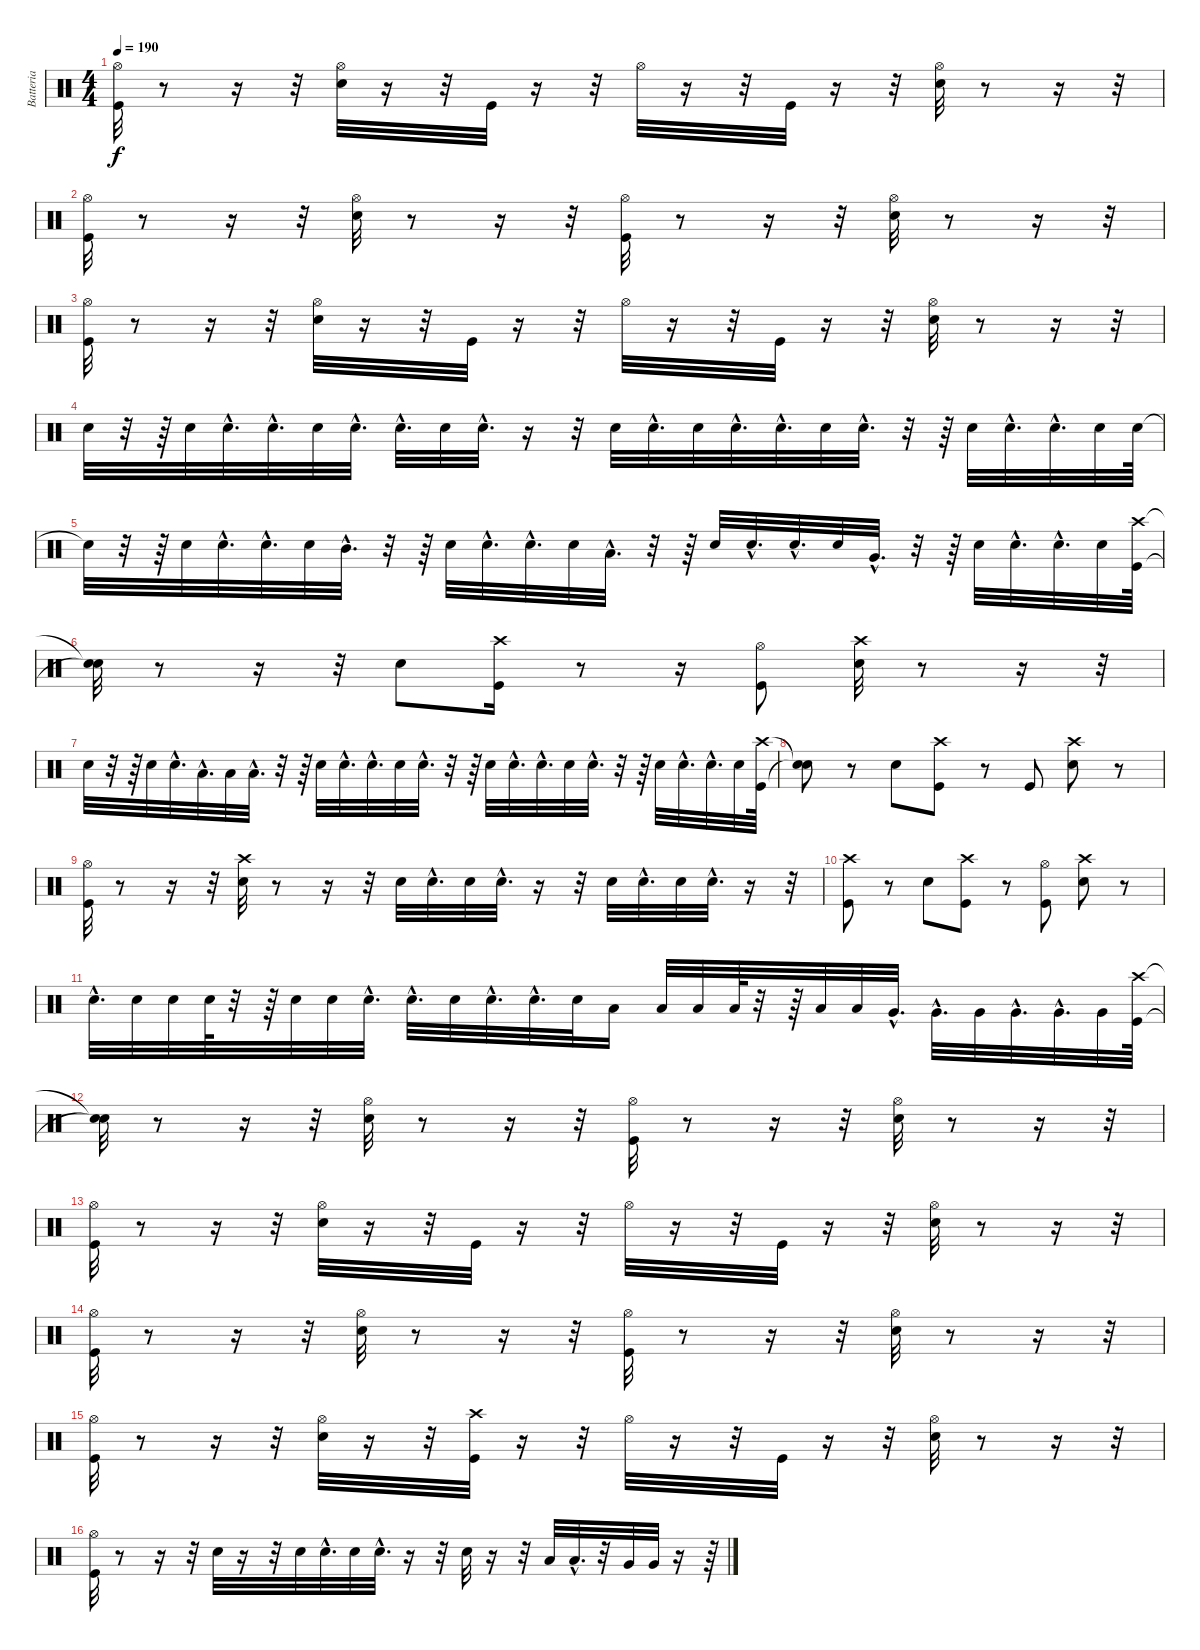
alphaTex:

\track ("Batteria" "Batteria") {instrument percussion}
\staff {score}
\articulation defaults
\ts (4 4)
\tempo 190
\clef neutral
\ks c
("Kick (hit)" "Hi-Hat (open)").32{dy f} r.8 r.16 r.32 ("Hi-Hat (open)" "Snare (hit) 2").32 r.16 r.32 "Kick (hit)".32 r.16 r.32 "Hi-Hat (open)".32 r.16 r.32 "Kick (hit)".32 r.16 r.32 ("Hi-Hat (open)" "Snare (hit) 2").32 r.8 r.16 r.32 |
("Hi-Hat (open)" "Kick (hit)").32 r.8 r.16 r.32 ("Snare (hit) 2" "Hi-Hat (open)").32 r.8 r.16 r.32 ("Hi-Hat (open)" "Kick (hit)").32 r.8 r.16 r.32 ("Hi-Hat (open)" "Snare (hit) 2").32 r.8 r.16 r.32 |
("Kick (hit)" "Hi-Hat (open)").32 r.8 r.16 r.32 ("Snare (hit) 2" "Hi-Hat (open)").32 r.16 r.32 "Kick (hit)".32 r.16 r.32 "Hi-Hat (open)".32 r.16 r.32 "Kick (hit)".32 r.16 r.32 ("Snare (hit) 2" "Hi-Hat (open)").32 r.8 r.16 r.32 |
"Snare (hit) 2".32 r.32 r.64 "Snare (hit) 2".32 "Snare (hit) 2"{hac}.32{d} "Snare (hit) 2"{hac}.32{d} "Snare (hit) 2".32 "Snare (hit) 2"{hac}.32{d} "Snare (hit) 2"{hac}.32{d} "Snare (hit) 2".32 "Snare (hit) 2"{hac}.32{d} r.16 r.32 "Snare (hit) 2".32 "Snare (hit) 2"{hac}.32{d} "Snare (hit) 2".32 "Snare (hit) 2"{hac}.32{d} "Snare (hit) 2"{hac}.32{d} "Snare (hit) 2".32 "Snare (hit) 2"{hac}.32{d} r.32 r.64 "Snare (hit) 2".32 "Snare (hit) 2"{hac}.32{d} "Snare (hit) 2"{hac}.32{d} "Snare (hit) 2".32 "Snare (hit) 2".64 |
"Snare (hit)"{t}.32 r.32 r.64 "Snare (hit) 2".32 "Snare (hit) 2"{hac}.32{d} "Snare (hit) 2"{hac}.32{d} "Snare (hit) 2".32 "Mid Tom (hit)"{hac}.32{d} r.32 r.64 "Snare (hit) 2".32 "Snare (hit) 2"{hac}.32{d} "Snare (hit) 2"{hac}.32{d} "Snare (hit) 2".32 "Low Tom (hit)"{hac}.32{d} r.32 r.64 "Snare (hit) 2".32 "Snare (hit) 2"{hac}.32{d} "Snare (hit) 2"{hac}.32{d} "Snare (hit) 2".32 "Very Low Tom (hit)"{hac}.32{d} r.32 r.64 "Snare (hit) 2".32 "Snare (hit) 2"{hac}.32{d} "Snare (hit) 2"{hac}.32{d} "Snare (hit) 2".32 ("Crash high (hit)" "Kick (hit)").64 |
("Snare (hit)"{t} "Snare (hit)"{t}).32 r.8 r.16 r.32 "Snare (hit) 2".8 ("Crash high (hit)" "Kick (hit)").16 r.8 r.16 ("Hi-Hat (open)" "Kick (hit)").8 ("Crash high (hit)" "Snare (hit) 2").32 r.8 r.16 r.32 |
"Snare (hit) 2".32 r.32 r.64 "Snare (hit) 2".32 "Snare (hit) 2"{hac}.32{d} "Low Tom (hit)"{hac}.32{d} "Low Tom (hit)".32 "Low Tom (hit)"{hac}.32{d} r.32 r.64 "Snare (hit) 2".32 "Snare (hit) 2"{hac}.32{d} "Snare (hit) 2"{hac}.32{d} "Snare (hit) 2".32 "Snare (hit) 2"{hac}.32{d} r.32 r.64 "Snare (hit) 2".32 "Snare (hit) 2"{hac}.32{d} "Snare (hit) 2"{hac}.32{d} "Snare (hit) 2".32 "Snare (hit) 2"{hac}.32{d} r.32 r.64 "Snare (hit) 2".32 "Snare (hit) 2"{hac}.32{d} "Snare (hit) 2"{hac}.32{d} "Snare (hit) 2".32 ("Kick (hit)" "Crash high (hit)").64 |
("Snare (hit)"{t} "Snare (hit)"{t}).8 r.8 "Snare (hit) 2".8 ("Crash high (hit)" "Kick (hit)").8 r.8 "Kick (hit)".8 ("Crash high (hit)" "Snare (hit) 2").8 r.8 |
("Kick (hit)" "Hi-Hat (open)").32 r.8 r.16 r.32 ("Crash high (hit)" "Snare (hit) 2").32 r.8 r.16 r.32 "Snare (hit) 2".32 "Snare (hit) 2"{hac}.32{d} "Snare (hit) 2".32 "Snare (hit) 2"{hac}.32{d} r.16 r.32 "Snare (hit) 2".32 "Snare (hit) 2"{hac}.32{d} "Snare (hit) 2".32 "Snare (hit) 2"{hac}.32{d} r.16 r.32 |
("Kick (hit)" "Crash high (hit)").8 r.8 "Snare (hit) 2".8 ("Kick (hit)" "Crash high (hit)").8 r.8 ("Hi-Hat (open)" "Kick (hit)").8 ("Snare (hit) 2" "Crash high (hit)").8 r.8 |
"Snare (hit) 2"{hac}.32{d} "Snare (hit) 2".32 "Snare (hit) 2".32 "Snare (hit) 2".64 r.32 r.64 "Snare (hit) 2".32 "Snare (hit) 2".32 "Snare (hit) 2"{hac}.32{d} "Snare (hit) 2"{hac}.32{d} "Snare (hit) 2".32 "Snare (hit) 2"{hac}.32{d} "Snare (hit) 2"{hac}.32{d} "Snare (hit) 2".32 "Low Tom (hit)".16 "Low Tom (hit)".32 "Low Tom (hit)".32 "Low Tom (hit)".64 r.32 r.64 "Low Tom (hit)".32 "Low Tom (hit)".32 "Very Low Tom (hit)"{hac}.32{d} "Very Low Tom (hit)"{hac}.32{d} "Very Low Tom (hit)".32 "Very Low Tom (hit)"{hac}.32{d} "Very Low Tom (hit)"{hac}.32{d} "Very Low Tom (hit)".32 ("Crash high (hit)" "Kick (hit)").64 |
("Snare (hit)"{t} "Snare (hit)"{t}).32 r.8 r.16 r.32 ("Hi-Hat (open)" "Snare (hit) 2").32 r.8 r.16 r.32 ("Hi-Hat (open)" "Kick (hit)").32 r.8 r.16 r.32 ("Hi-Hat (open)" "Snare (hit) 2").32 r.8 r.16 r.32 |
("Hi-Hat (open)" "Kick (hit)").32 r.8 r.16 r.32 ("Hi-Hat (open)" "Snare (hit) 2").32 r.16 r.32 "Kick (hit)".32 r.16 r.32 "Hi-Hat (open)".32 r.16 r.32 "Kick (hit)".32 r.16 r.32 ("Snare (hit) 2" "Hi-Hat (open)").32 r.8 r.16 r.32 |
("Kick (hit)" "Hi-Hat (open)").32 r.8 r.16 r.32 ("Snare (hit) 2" "Hi-Hat (open)").32 r.8 r.16 r.32 ("Hi-Hat (open)" "Kick (hit)").32 r.8 r.16 r.32 ("Snare (hit) 2" "Hi-Hat (open)").32 r.8 r.16 r.32 |
("Kick (hit)" "Hi-Hat (open)").32 r.8 r.16 r.32 ("Snare (hit) 2" "Hi-Hat (open)").32 r.16 r.32 ("Kick (hit)" "Crash high (hit)").32 r.16 r.32 "Hi-Hat (open)".32 r.16 r.32 "Kick (hit)".32 r.16 r.32 ("Snare (hit) 2" "Hi-Hat (open)").32 r.8 r.16 r.32 |
("Hi-Hat (open)" "Kick (hit)").32 r.8 r.16 r.32 "Snare (hit) 2".32 r.16 r.32 "Snare (hit) 2".32 "Snare (hit) 2"{hac}.32{d} "Snare (hit) 2".32 "Snare (hit) 2"{hac}.32{d} r.16 r.32 "Snare (hit) 2".32 r.16 r.32 "Low Tom (hit)".32 "Low Tom (hit)"{hac}.32{d} r.32 "Very Low Tom (hit)".32 "Very Low Tom (hit)".32 r.16 r.64
